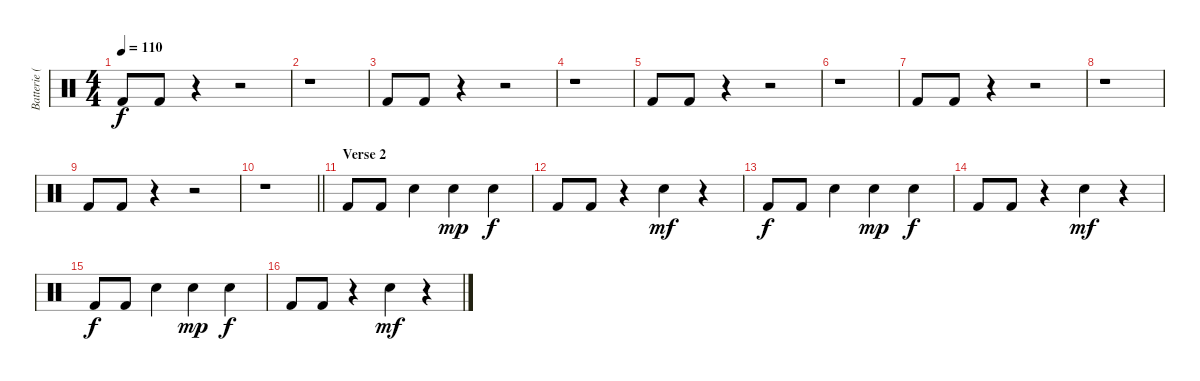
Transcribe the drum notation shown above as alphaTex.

\track ("Batterie (Fanny)" "Batterie (") {instrument percussion}
\staff {score}
\articulation defaults
\ts (4 4)
\tempo 110
\clef neutral
\ks c "Kick (hit) 2".8{dy f} "Kick (hit) 2".8
r.4 r.2 |
r.1 |
"Kick (hit) 2".8 "Kick (hit) 2".8 r.4 r.2 |
r.1 |
"Kick (hit) 2".8 "Kick (hit) 2".8 r.4 r.2 |
r.1 |
"Kick (hit) 2".8 "Kick (hit) 2".8 r.4 r.2 |
r.1 |
"Kick (hit) 2".8 "Kick (hit) 2".8 r.4 r.2 |
\barLineRight lightlight
r.1 |
\section ("" "Verse 2")
"Kick (hit) 2".8 "Kick (hit) 2".8 "Snare (hit) 2".4 "Snare (hit) 2".4{dy mp} "Snare (hit) 2".4{dy f} |
"Kick (hit) 2".8 "Kick (hit) 2".8 r.4 "Snare (hit) 2".4{dy mf} r.4 |
"Kick (hit) 2".8{dy f} "Kick (hit) 2".8 "Snare (hit) 2".4 "Snare (hit) 2".4{dy mp} "Snare (hit) 2".4{dy f} |
"Kick (hit) 2".8 "Kick (hit) 2".8 r.4 "Snare (hit) 2".4{dy mf} r.4 |
"Kick (hit) 2".8{dy f} "Kick (hit) 2".8 "Snare (hit) 2".4 "Snare (hit) 2".4{dy mp} "Snare (hit) 2".4{dy f} |
"Kick (hit) 2".8 "Kick (hit) 2".8 r.4 "Snare (hit) 2".4{dy mf} r.4
